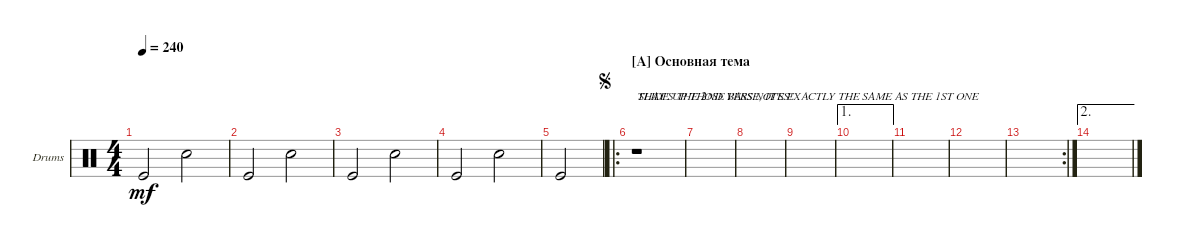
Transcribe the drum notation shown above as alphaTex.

\defaultSystemsLayout 4
\bracketExtendMode groupsimilarinstruments
\firstSystemTrackNameOrientation horizontal
\otherSystemsTrackNameOrientation horizontal
\track ("Drumkit" "Drums") {instrument percussion}
\staff {score}
\articulation defaults
\ts (4 4)
\tempo 240
\clef neutral
\scale
0.333333
\ks c "Kick (hit)".2{dy mf} "Snare (hit) 2".2
|
\scale
0.333333 "Kick (hit)".2 "Snare (hit) 2".2 |
\scale
0.333333 "Kick (hit)".2 "Snare (hit) 2".2 |
\scale
0.333333 "Kick (hit)".2 "Snare (hit) 2".2 |
"Kick (hit)".2{txt "                          SLIDE UP THOSE BASS NOTES!"} |
\ro
\section ("A" "Основная тема")
\jump segno
r.1{txt "THAT'S THE 2ND VERSE, IT'S EXACTLY THE SAME AS THE 1ST ONE"} |
|
|
|
\ae 1
|
|
|
\rc 2
|
\ae 2
